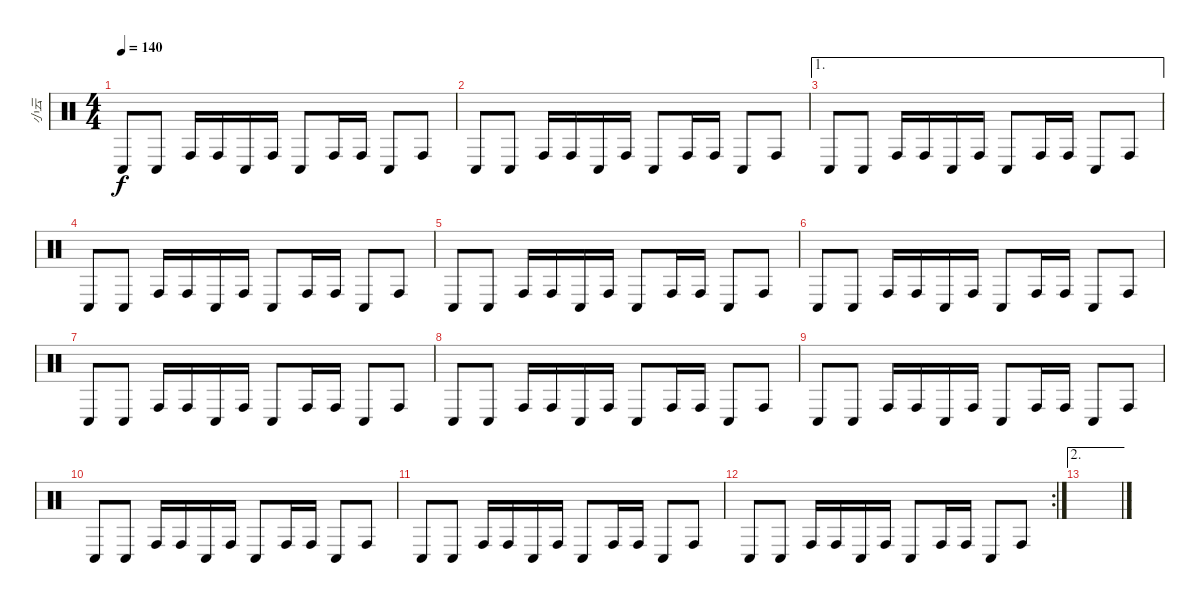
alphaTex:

\track ("小云" "小云") {instrument percussion}
\staff {score}
\articulation defaults
\ts (4 4)
\tempo 140
\clef neutral
\ks c "Conga low (hit)".8{dy f} "Conga low (hit)".8 "Conga high (hit)".16 "Conga high (hit)".16 "Conga low (hit)".16 "Conga high (hit)".16 "Conga low (hit)".8 "Conga high (hit)".16 "Conga high (hit)".16 "Conga low (hit)".8 "Conga high (hit)".8
|
"Conga low (hit)".8 "Conga low (hit)".8 "Conga high (hit)".16 "Conga high (hit)".16 "Conga low (hit)".16 "Conga high (hit)".16 "Conga low (hit)".8 "Conga high (hit)".16 "Conga high (hit)".16 "Conga low (hit)".8 "Conga high (hit)".8 |
\ae 1 "Conga low (hit)".8 "Conga low (hit)".8 "Conga high (hit)".16 "Conga high (hit)".16 "Conga low (hit)".16 "Conga high (hit)".16 "Conga low (hit)".8 "Conga high (hit)".16 "Conga high (hit)".16 "Conga low (hit)".8 "Conga high (hit)".8
|
"Conga low (hit)".8 "Conga low (hit)".8 "Conga high (hit)".16 "Conga high (hit)".16 "Conga low (hit)".16 "Conga high (hit)".16 "Conga low (hit)".8 "Conga high (hit)".16 "Conga high (hit)".16 "Conga low (hit)".8 "Conga high (hit)".8 |
"Conga low (hit)".8 "Conga low (hit)".8 "Conga high (hit)".16 "Conga high (hit)".16 "Conga low (hit)".16 "Conga high (hit)".16 "Conga low (hit)".8 "Conga high (hit)".16 "Conga high (hit)".16 "Conga low (hit)".8 "Conga high (hit)".8 |
"Conga low (hit)".8 "Conga low (hit)".8 "Conga high (hit)".16 "Conga high (hit)".16 "Conga low (hit)".16 "Conga high (hit)".16 "Conga low (hit)".8 "Conga high (hit)".16 "Conga high (hit)".16 "Conga low (hit)".8 "Conga high (hit)".8 |
"Conga low (hit)".8 "Conga low (hit)".8 "Conga high (hit)".16 "Conga high (hit)".16 "Conga low (hit)".16 "Conga high (hit)".16 "Conga low (hit)".8 "Conga high (hit)".16 "Conga high (hit)".16 "Conga low (hit)".8 "Conga high (hit)".8 |
"Conga low (hit)".8 "Conga low (hit)".8 "Conga high (hit)".16 "Conga high (hit)".16 "Conga low (hit)".16 "Conga high (hit)".16 "Conga low (hit)".8 "Conga high (hit)".16 "Conga high (hit)".16 "Conga low (hit)".8 "Conga high (hit)".8 |
"Conga low (hit)".8 "Conga low (hit)".8 "Conga high (hit)".16 "Conga high (hit)".16 "Conga low (hit)".16 "Conga high (hit)".16 "Conga low (hit)".8 "Conga high (hit)".16 "Conga high (hit)".16 "Conga low (hit)".8 "Conga high (hit)".8 |
"Conga low (hit)".8 "Conga low (hit)".8 "Conga high (hit)".16 "Conga high (hit)".16 "Conga low (hit)".16 "Conga high (hit)".16 "Conga low (hit)".8 "Conga high (hit)".16 "Conga high (hit)".16 "Conga low (hit)".8 "Conga high (hit)".8 |
"Conga low (hit)".8 "Conga low (hit)".8 "Conga high (hit)".16 "Conga high (hit)".16 "Conga low (hit)".16 "Conga high (hit)".16 "Conga low (hit)".8 "Conga high (hit)".16 "Conga high (hit)".16 "Conga low (hit)".8 "Conga high (hit)".8 |
\rc 2 "Conga low (hit)".8 "Conga low (hit)".8 "Conga high (hit)".16 "Conga high (hit)".16 "Conga low (hit)".16 "Conga high (hit)".16 "Conga low (hit)".8 "Conga high (hit)".16 "Conga high (hit)".16 "Conga low (hit)".8 "Conga high (hit)".8
|
\ae 2
